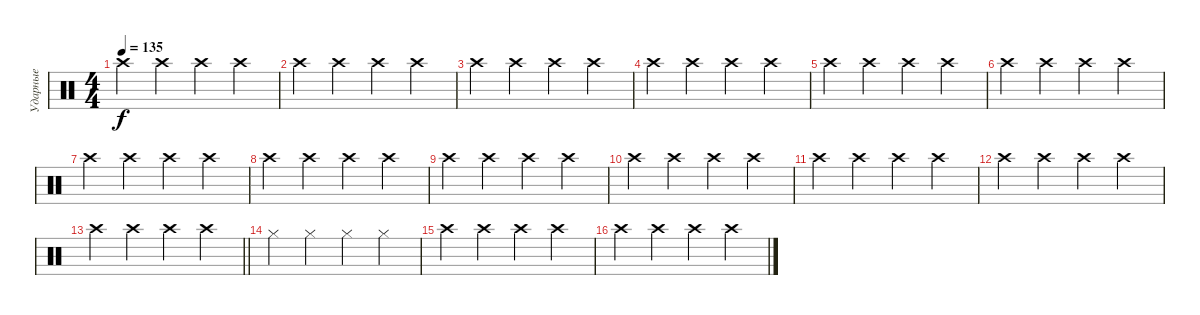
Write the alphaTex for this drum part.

\track ("Ударные" "Ударные") {instrument percussion}
\staff {score}
\articulation defaults
\ts (4 4)
\tempo 135
\clef neutral
\ks c "Crash high (hit)".4{dy f} "Crash high (hit)".4 "Crash high (hit)".4 "Crash high (hit)".4
|
"Crash high (hit)".4 "Crash high (hit)".4 "Crash high (hit)".4 "Crash high (hit)".4 |
"Crash high (hit)".4 "Crash high (hit)".4 "Crash high (hit)".4 "Crash high (hit)".4 |
"Crash high (hit)".4 "Crash high (hit)".4 "Crash high (hit)".4 "Crash high (hit)".4 |
"Crash high (hit)".4 "Crash high (hit)".4 "Crash high (hit)".4 "Crash high (hit)".4 |
"Crash high (hit)".4 "Crash high (hit)".4 "Crash high (hit)".4 "Crash high (hit)".4 |
"Crash high (hit)".4 "Crash high (hit)".4 "Crash high (hit)".4 "Crash high (hit)".4 |
"Crash high (hit)".4 "Crash high (hit)".4 "Crash high (hit)".4 "Crash high (hit)".4 |
"Crash high (hit)".4 "Crash high (hit)".4 "Crash high (hit)".4 "Crash high (hit)".4 |
"Crash high (hit)".4 "Crash high (hit)".4 "Crash high (hit)".4 "Crash high (hit)".4 |
"Crash high (hit)".4 "Crash high (hit)".4 "Crash high (hit)".4 "Crash high (hit)".4 |
"Crash high (hit)".4 "Crash high (hit)".4 "Crash high (hit)".4 "Crash high (hit)".4 |
\barLineRight lightlight "Crash high (hit)".4 "Crash high (hit)".4 "Crash high (hit)".4 "Crash high (hit)".4
|
"Hi-Hat (closed)".4 "Hi-Hat (closed)".4 "Hi-Hat (closed)".4 "Hi-Hat (closed)".4 |
"Crash high (hit)".4 "Crash high (hit)".4 "Crash high (hit)".4 "Crash high (hit)".4 |
"Crash high (hit)".4 "Crash high (hit)".4 "Crash high (hit)".4 "Crash high (hit)".4
